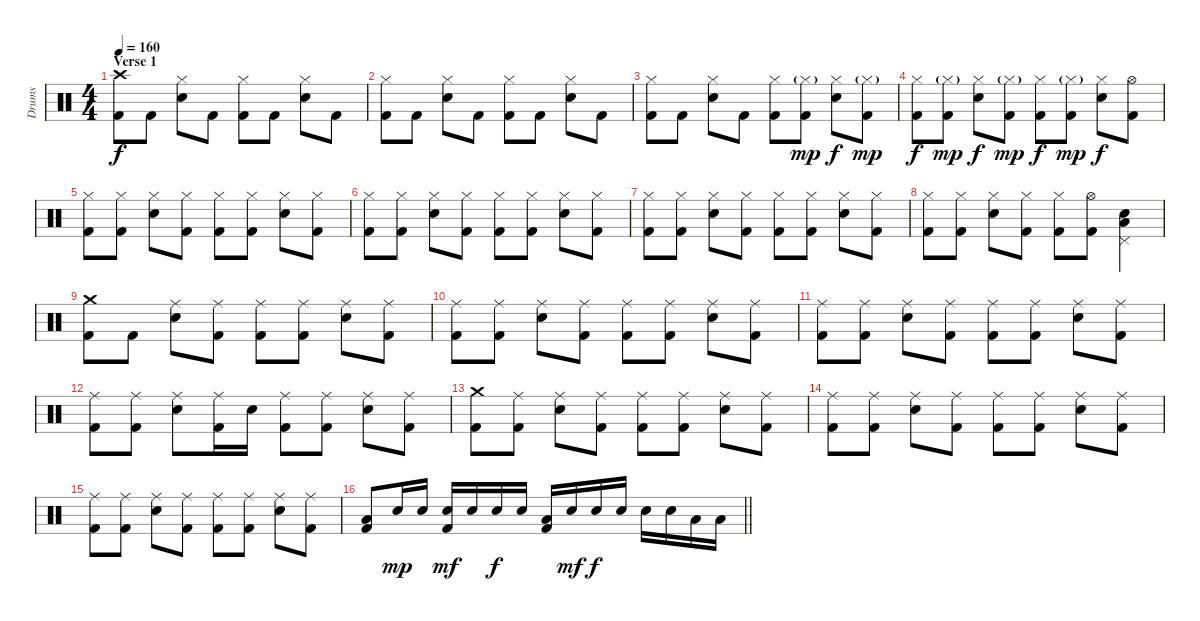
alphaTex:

\track ("Drums" "Drums") {instrument percussion}
\staff {score}
\articulation defaults
\ts (4 4)
\section ("" "Verse 1")
\tempo 160
\clef neutral
\ks c
("Crash high (hit)" "Kick (hit) 2").8{dy f} "Kick (hit) 2".8 ("Hi-Hat (closed)" "Electric Snare (hit)").8 "Kick (hit) 2".8 ("Hi-Hat (closed)" "Kick (hit) 2").8 "Kick (hit) 2".8 ("Hi-Hat (closed)" "Electric Snare (hit)").8 "Kick (hit) 2".8 |
("Hi-Hat (closed)" "Kick (hit) 2").8 "Kick (hit) 2".8 ("Hi-Hat (closed)" "Electric Snare (hit)").8 "Kick (hit) 2".8 ("Hi-Hat (closed)" "Kick (hit) 2").8 "Kick (hit) 2".8 ("Hi-Hat (closed)" "Electric Snare (hit)").8 "Kick (hit) 2".8 |
("Hi-Hat (closed)" "Kick (hit) 2").8 "Kick (hit) 2".8 ("Hi-Hat (closed)" "Electric Snare (hit)").8 "Kick (hit) 2".8 ("Hi-Hat (closed)" "Kick (hit) 2").8 ("Hi-Hat (closed)"{g} "Kick (hit) 2").8{dy mp} ("Hi-Hat (closed)" "Electric Snare (hit)").8{dy f} ("Hi-Hat (closed)"{g} "Kick (hit) 2").8{dy mp} |
("Hi-Hat (closed)" "Kick (hit) 2").8{dy f} ("Hi-Hat (closed)"{g} "Kick (hit) 2").8{dy mp} ("Hi-Hat (closed)" "Electric Snare (hit)").8{dy f} ("Hi-Hat (closed)"{g} "Kick (hit) 2").8{dy mp} ("Hi-Hat (closed)" "Kick (hit) 2").8{dy f} ("Hi-Hat (closed)"{g} "Kick (hit) 2").8{dy mp} ("Hi-Hat (closed)" "Electric Snare (hit)").8{dy f} ("Hi-Hat (open)" "Kick (hit) 2").8 |
("Hi-Hat (closed)" "Kick (hit) 2").8 ("Hi-Hat (closed)" "Kick (hit) 2").8 ("Hi-Hat (closed)" "Electric Snare (hit)").8 ("Hi-Hat (closed)" "Kick (hit) 2").8 ("Hi-Hat (closed)" "Kick (hit) 2").8 ("Hi-Hat (closed)" "Kick (hit) 2").8 ("Hi-Hat (closed)" "Electric Snare (hit)").8 ("Hi-Hat (closed)" "Kick (hit) 2").8 |
("Hi-Hat (closed)" "Kick (hit) 2").8 ("Hi-Hat (closed)" "Kick (hit) 2").8 ("Hi-Hat (closed)" "Electric Snare (hit)").8 ("Hi-Hat (closed)" "Kick (hit) 2").8 ("Hi-Hat (closed)" "Kick (hit) 2").8 ("Hi-Hat (closed)" "Kick (hit) 2").8 ("Hi-Hat (closed)" "Electric Snare (hit)").8 ("Hi-Hat (closed)" "Kick (hit) 2").8 |
("Hi-Hat (closed)" "Kick (hit) 2").8 ("Hi-Hat (closed)" "Kick (hit) 2").8 ("Hi-Hat (closed)" "Electric Snare (hit)").8 ("Hi-Hat (closed)" "Kick (hit) 2").8 ("Hi-Hat (closed)" "Kick (hit) 2").8 ("Hi-Hat (closed)" "Kick (hit) 2").8 ("Hi-Hat (closed)" "Electric Snare (hit)").8 ("Hi-Hat (closed)" "Kick (hit) 2").8 |
("Hi-Hat (closed)" "Kick (hit) 2").8 ("Hi-Hat (closed)" "Kick (hit) 2").8 ("Hi-Hat (closed)" "Electric Snare (hit)").8 ("Hi-Hat (closed)" "Kick (hit) 2").8 ("Hi-Hat (closed)" "Kick (hit) 2").8 ("Hi-Hat (open)" "Kick (hit) 2").8 ("Pedal Hi-Hat (hit)" "Low Floor Tom (hit)" "Electric Snare (hit)").4 |
("Crash medium (hit)" "Kick (hit) 2").8 "Kick (hit) 2".8 ("Ride (middle)" "Electric Snare (hit)").8 ("Ride (middle)" "Kick (hit) 2").8 ("Ride (middle)" "Kick (hit) 2").8 ("Ride (middle)" "Kick (hit) 2").8 ("Ride (middle)" "Electric Snare (hit)").8 ("Ride (middle)" "Kick (hit) 2").8 |
("Ride (middle)" "Kick (hit) 2").8 ("Ride (middle)" "Kick (hit) 2").8 ("Ride (middle)" "Electric Snare (hit)").8 ("Ride (middle)" "Kick (hit) 2").8 ("Ride (middle)" "Kick (hit) 2").8 ("Ride (middle)" "Kick (hit) 2").8 ("Ride (middle)" "Electric Snare (hit)").8 ("Ride (middle)" "Kick (hit) 2").8 |
("Ride (middle)" "Kick (hit) 2").8 ("Ride (middle)" "Kick (hit) 2").8 ("Ride (middle)" "Electric Snare (hit)").8 ("Ride (middle)" "Kick (hit) 2").8 ("Ride (middle)" "Kick (hit) 2").8 ("Ride (middle)" "Kick (hit) 2").8 ("Ride (middle)" "Electric Snare (hit)").8 ("Ride (middle)" "Kick (hit) 2").8 |
("Ride (middle)" "Kick (hit) 2").8 ("Ride (middle)" "Kick (hit) 2").8 ("Ride (middle)" "Electric Snare (hit)").8 ("Ride (middle)" "Kick (hit) 2").16 "Electric Snare (hit)".16 ("Ride (middle)" "Kick (hit) 2").8 ("Ride (middle)" "Kick (hit) 2").8 ("Ride (middle)" "Electric Snare (hit)").8 ("Ride (middle)" "Kick (hit) 2").8 |
("Crash medium (hit)" "Kick (hit) 2").8 ("Ride (middle)" "Kick (hit) 2").8 ("Ride (middle)" "Electric Snare (hit)").8 ("Ride (middle)" "Kick (hit) 2").8 ("Ride (middle)" "Kick (hit) 2").8 ("Ride (middle)" "Kick (hit) 2").8 ("Ride (middle)" "Electric Snare (hit)").8 ("Ride (middle)" "Kick (hit) 2").8 |
("Ride (middle)" "Kick (hit) 2").8 ("Ride (middle)" "Kick (hit) 2").8 ("Ride (middle)" "Electric Snare (hit)").8 ("Ride (middle)" "Kick (hit) 2").8 ("Ride (middle)" "Kick (hit) 2").8 ("Ride (middle)" "Kick (hit) 2").8 ("Ride (middle)" "Electric Snare (hit)").8 ("Ride (middle)" "Kick (hit) 2").8 |
("Ride (middle)" "Kick (hit) 2").8 ("Ride (middle)" "Kick (hit) 2").8 ("Ride (middle)" "Electric Snare (hit)").8 ("Ride (middle)" "Kick (hit) 2").8 ("Ride (middle)" "Kick (hit) 2").8 ("Ride (middle)" "Kick (hit) 2").8 ("Ride (middle)" "Electric Snare (hit)").8 ("Ride (middle)" "Kick (hit) 2").8 |
\barLineRight lightlight
("Low Tom (hit)" "Kick (hit) 2").8 "Electric Snare (hit)".16{dy mp} "Electric Snare (hit)".16 ("Electric Snare (hit)" "Kick (hit) 2").16{dy mf} "Electric Snare (hit)".16 "Electric Snare (hit)".16{dy f} "Electric Snare (hit)".16 ("Low Tom (hit)" "Kick (hit) 2").16 "Electric Snare (hit)".16{dy mf} "Electric Snare (hit)".16{dy f} "Electric Snare (hit)".16 "Electric Snare (hit)".16 "Electric Snare (hit)".16 "Low Floor Tom (hit)".16 "Low Floor Tom (hit)".16
